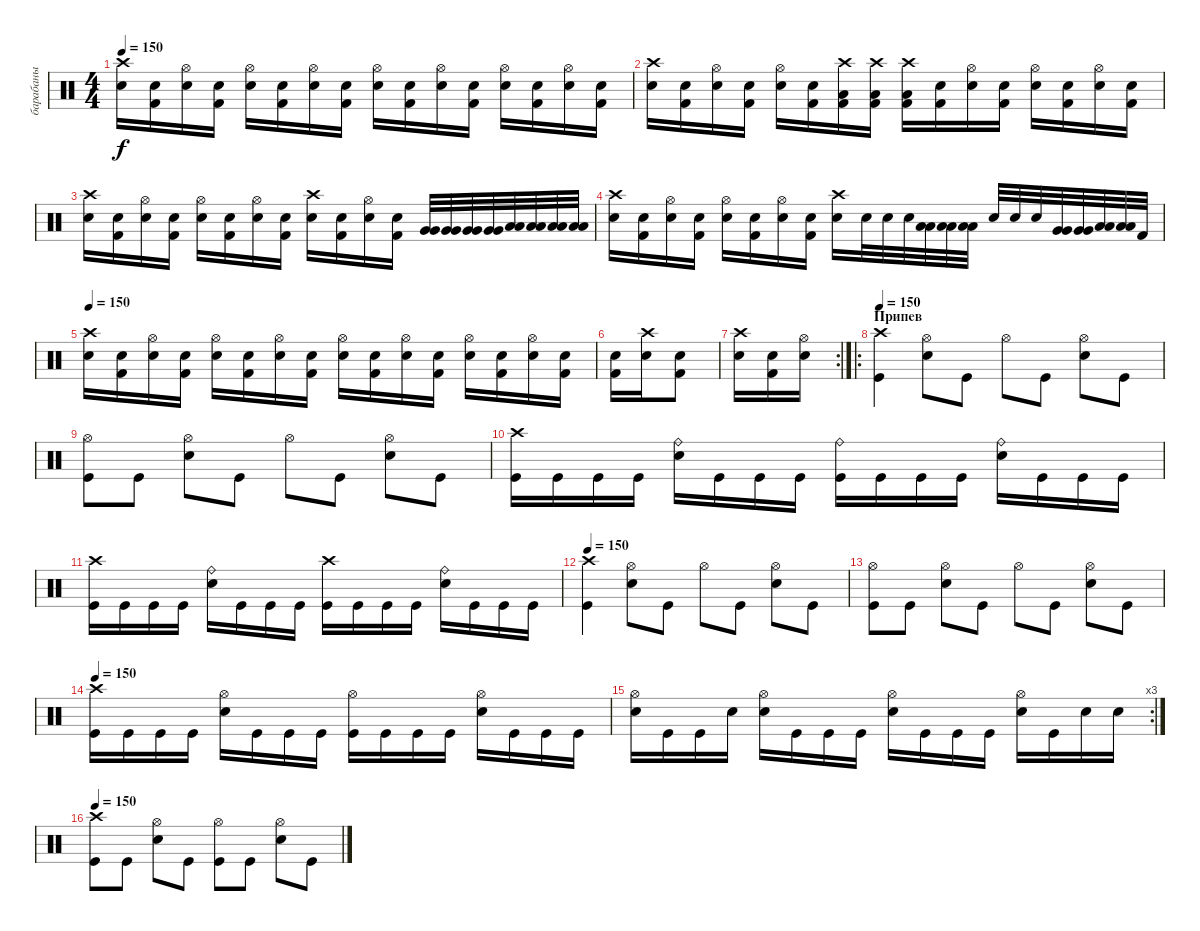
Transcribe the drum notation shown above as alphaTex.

\track ("барабаны" "барабаны") {instrument percussion}
\staff {score}
\articulation defaults
\ts (4 4)
\tempo 150
\clef neutral
\ks c
("Electric Snare (hit)" "Crash high (hit)").16{dy f} ("Kick (hit) 2" "Electric Snare (hit)").16 ("Electric Snare (hit)" "Hi-Hat (open)").16 ("Kick (hit) 2" "Electric Snare (hit)").16 ("Electric Snare (hit)" "Hi-Hat (open)").16 ("Kick (hit) 2" "Electric Snare (hit)").16 ("Electric Snare (hit)" "Hi-Hat (open)").16 ("Kick (hit) 2" "Electric Snare (hit)").16 ("Electric Snare (hit)" "Hi-Hat (open)").16 ("Kick (hit) 2" "Electric Snare (hit)").16 ("Electric Snare (hit)" "Hi-Hat (open)").16 ("Kick (hit) 2" "Electric Snare (hit)").16 ("Electric Snare (hit)" "Hi-Hat (open)").16 ("Kick (hit) 2" "Electric Snare (hit)").16 ("Electric Snare (hit)" "Hi-Hat (open)").16 ("Kick (hit) 2" "Electric Snare (hit)").16 |
("Electric Snare (hit)" "Crash high (hit)").16 ("Kick (hit) 2" "Electric Snare (hit)").16 ("Electric Snare (hit)" "Hi-Hat (open)").16 ("Kick (hit) 2" "Electric Snare (hit)").16 ("Electric Snare (hit)" "Hi-Hat (open)").16 ("Kick (hit) 2" "Electric Snare (hit)").16 ("Kick (hit) 2" "Low Floor Tom (hit)" "Crash high (hit)").16 ("Kick (hit) 2" "Low Floor Tom (hit)" "Crash high (hit)").16 ("Kick (hit) 2" "Low Floor Tom (hit)" "Crash high (hit)").16 ("Kick (hit) 2" "Electric Snare (hit)").16 ("Electric Snare (hit)" "Hi-Hat (open)").16 ("Kick (hit) 2" "Electric Snare (hit)").16 ("Electric Snare (hit)" "Hi-Hat (open)").16 ("Kick (hit) 2" "Electric Snare (hit)").16 ("Electric Snare (hit)" "Hi-Hat (open)").16 ("Kick (hit) 2" "Electric Snare (hit)").16 |
("Electric Snare (hit)" "Crash high (hit)").16 ("Kick (hit) 2" "Electric Snare (hit)").16 ("Electric Snare (hit)" "Hi-Hat (open)").16 ("Kick (hit) 2" "Electric Snare (hit)").16 ("Electric Snare (hit)" "Hi-Hat (open)").16 ("Kick (hit) 2" "Electric Snare (hit)").16 ("Electric Snare (hit)" "Hi-Hat (open)").16 ("Kick (hit) 2" "Electric Snare (hit)").16 ("Electric Snare (hit)" "Crash high (hit)").16 ("Kick (hit) 2" "Electric Snare (hit)").16 ("Electric Snare (hit)" "Hi-Hat (open)").16 ("Kick (hit) 2" "Electric Snare (hit)").16 ("Very Low Tom (hit)" "Very Low Tom (hit)").32 ("Very Low Tom (hit)" "Very Low Tom (hit)").32 ("Very Low Tom (hit)" "Very Low Tom (hit)").32 ("Very Low Tom (hit)" "Very Low Tom (hit)").32 ("Low Floor Tom (hit)" "Low Floor Tom (hit)").32 ("Low Floor Tom (hit)" "Low Floor Tom (hit)").32 ("Low Floor Tom (hit)" "Low Floor Tom (hit)").32 ("Low Floor Tom (hit)" "Low Floor Tom (hit)").32 |
("Electric Snare (hit)" "Crash high (hit)").16 ("Kick (hit) 2" "Electric Snare (hit)").16 ("Electric Snare (hit)" "Hi-Hat (open)").16 ("Kick (hit) 2" "Electric Snare (hit)").16 ("Electric Snare (hit)" "Hi-Hat (open)").16 ("Kick (hit) 2" "Electric Snare (hit)").16 ("Electric Snare (hit)" "Hi-Hat (open)").16 ("Kick (hit) 2" "Electric Snare (hit)").16 ("Electric Snare (hit)" "Crash high (hit)").16 "Electric Snare (hit)".32 "Electric Snare (hit)".32 "Electric Snare (hit)".32 ("Low Tom (hit)" "Low Tom (hit)").32 ("Low Tom (hit)" "Low Tom (hit)").32 ("Low Tom (hit)" "Low Tom (hit)").32 "Electric Snare (hit)".32 "Electric Snare (hit)".32 "Electric Snare (hit)".32 ("Very Low Tom (hit)" "Very Low Tom (hit)").32 ("Very Low Tom (hit)" "Very Low Tom (hit)").32 ("Low Floor Tom (hit)" "Low Floor Tom (hit)").32 ("Low Floor Tom (hit)" "Low Floor Tom (hit)").32 "Kick (hit) 2".32 |
\tempo 150
("Electric Snare (hit)" "Crash high (hit)").16 ("Kick (hit) 2" "Electric Snare (hit)").16 ("Electric Snare (hit)" "Hi-Hat (open)").16 ("Kick (hit) 2" "Electric Snare (hit)").16 ("Electric Snare (hit)" "Hi-Hat (open)").16 ("Kick (hit) 2" "Electric Snare (hit)").16 ("Electric Snare (hit)" "Hi-Hat (open)").16 ("Kick (hit) 2" "Electric Snare (hit)").16 ("Electric Snare (hit)" "Hi-Hat (open)").16 ("Kick (hit) 2" "Electric Snare (hit)").16 ("Electric Snare (hit)" "Hi-Hat (open)").16 ("Kick (hit) 2" "Electric Snare (hit)").16 ("Electric Snare (hit)" "Hi-Hat (open)").16 ("Kick (hit) 2" "Electric Snare (hit)").16 ("Electric Snare (hit)" "Hi-Hat (open)").16 ("Kick (hit) 2" "Electric Snare (hit)").16 |
("Kick (hit) 2" "Electric Snare (hit)").16 ("Crash high (hit)" "Electric Snare (hit)").16 ("Kick (hit) 2" "Electric Snare (hit)").8 |
\rc 2
("Electric Snare (hit)" "Crash high (hit)").16 ("Kick (hit) 2" "Electric Snare (hit)").16 ("Electric Snare (hit)" "Hi-Hat (open)").16 |
\ro
\section ("" "Припев")
\tempo 150
("Crash high (hit)" "Kick (hit)").4 ("Hi-Hat (open)" "Electric Snare (hit)").8 "Kick (hit)".8 "Hi-Hat (open)".8 "Kick (hit)".8 ("Hi-Hat (open)" "Electric Snare (hit)").8 "Kick (hit)".8 |
("Hi-Hat (open)" "Kick (hit)").8 "Kick (hit)".8 ("Hi-Hat (open)" "Electric Snare (hit)").8 "Kick (hit)".8 "Hi-Hat (open)".8 "Kick (hit)".8 ("Hi-Hat (open)" "Electric Snare (hit)").8 "Kick (hit)".8 |
("Crash high (hit)" "Kick (hit)").16 "Kick (hit)".16 "Kick (hit)".16 "Kick (hit)".16 ("Ride (bell)" "Electric Snare (hit)").16 "Kick (hit)".16 "Kick (hit)".16 "Kick (hit)".16 ("Ride (bell)" "Kick (hit)").16 "Kick (hit)".16 "Kick (hit)".16 "Kick (hit)".16 ("Ride (bell)" "Electric Snare (hit)").16 "Kick (hit)".16 "Kick (hit)".16 "Kick (hit)".16 |
("Crash high (hit)" "Kick (hit)").16 "Kick (hit)".16 "Kick (hit)".16 "Kick (hit)".16 ("Ride (bell)" "Electric Snare (hit)").16 "Kick (hit)".16 "Kick (hit)".16 "Kick (hit)".16 ("Crash high (hit)" "Kick (hit)").16 "Kick (hit)".16 "Kick (hit)".16 "Kick (hit)".16 ("Ride (bell)" "Electric Snare (hit)").16 "Kick (hit)".16 "Kick (hit)".16 "Kick (hit)".16 |
\tempo 150
("Crash high (hit)" "Kick (hit)").4 ("Hi-Hat (open)" "Electric Snare (hit)").8 "Kick (hit)".8 "Hi-Hat (open)".8 "Kick (hit)".8 ("Hi-Hat (open)" "Electric Snare (hit)").8 "Kick (hit)".8 |
("Hi-Hat (open)" "Kick (hit)").8 "Kick (hit)".8 ("Hi-Hat (open)" "Electric Snare (hit)").8 "Kick (hit)".8 "Hi-Hat (open)".8 "Kick (hit)".8 ("Hi-Hat (open)" "Electric Snare (hit)").8 "Kick (hit)".8 |
\tempo 150
("Crash high (hit)" "Kick (hit)").16 "Kick (hit)".16 "Kick (hit)".16 "Kick (hit)".16 ("Hi-Hat (open)" "Electric Snare (hit)").16 "Kick (hit)".16 "Kick (hit)".16 "Kick (hit)".16 ("Hi-Hat (open)" "Kick (hit)").16 "Kick (hit)".16 "Kick (hit)".16 "Kick (hit)".16 ("Hi-Hat (open)" "Electric Snare (hit)").16 "Kick (hit)".16 "Kick (hit)".16 "Kick (hit)".16 |
\rc 3
("Hi-Hat (open)" "Electric Snare (hit)").16 "Kick (hit)".16 "Kick (hit)".16 "Electric Snare (hit)".16 ("Hi-Hat (open)" "Electric Snare (hit)").16 "Kick (hit)".16 "Kick (hit)".16 "Kick (hit)".16 ("Hi-Hat (open)" "Electric Snare (hit)").16 "Kick (hit)".16 "Kick (hit)".16 "Kick (hit)".16 ("Hi-Hat (open)" "Electric Snare (hit)").16 "Kick (hit)".16 "Electric Snare (hit)".16 "Electric Snare (hit)".16 |
\tempo 150
("Crash high (hit)" "Kick (hit)").8 "Kick (hit)".8 ("Hi-Hat (open)" "Electric Snare (hit)").8 "Kick (hit)".8 ("Hi-Hat (open)" "Kick (hit)").8 "Kick (hit)".8 ("Hi-Hat (open)" "Electric Snare (hit)").8 "Kick (hit)".8
